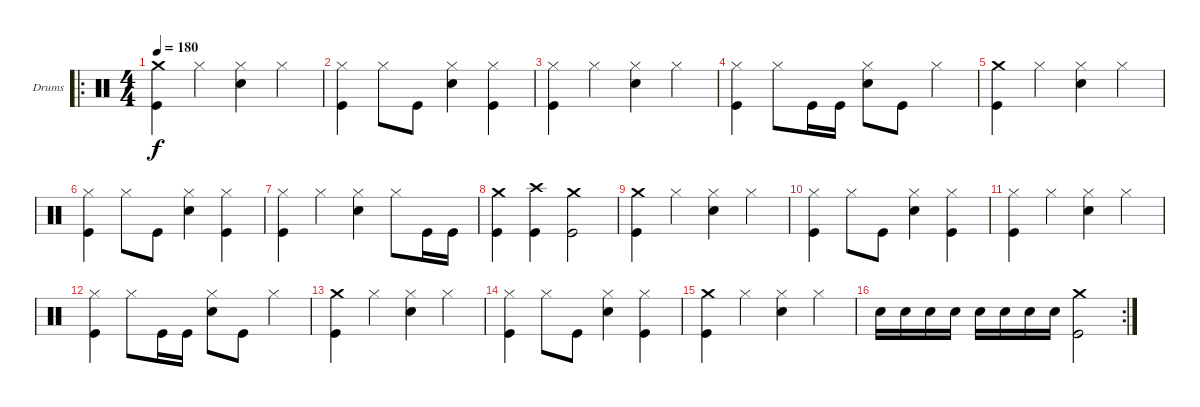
\bracketExtendMode groupsimilarinstruments
\firstSystemTrackNameOrientation horizontal
\otherSystemsTrackNameOrientation horizontal
\track ("Drumkit" "Drums") {instrument percussion}
\staff {score}
\articulation defaults
\ro
\ts (4 4)
\tempo 180
\clef neutral
\ks c
("Crash medium (hit)" "Kick (hit)").4{dy f} "Hi-Hat (closed)".4 ("Hi-Hat (closed)" "Snare (hit) 2").4 "Hi-Hat (closed)".4 |
("Hi-Hat (closed)" "Kick (hit)").4 "Hi-Hat (closed)".8 "Kick (hit)".8 ("Hi-Hat (closed)" "Snare (hit) 2").4 ("Hi-Hat (closed)" "Kick (hit)").4 |
("Hi-Hat (closed)" "Kick (hit)").4 "Hi-Hat (closed)".4 ("Hi-Hat (closed)" "Snare (hit) 2").4 "Hi-Hat (closed)".4 |
("Hi-Hat (closed)" "Kick (hit)").4 "Hi-Hat (closed)".8 "Kick (hit)".16 "Kick (hit)".16 ("Hi-Hat (closed)" "Snare (hit) 2").8 "Kick (hit)".8 "Hi-Hat (closed)".4 |
("Crash medium (hit)" "Kick (hit)").4 "Hi-Hat (closed)".4 ("Hi-Hat (closed)" "Snare (hit) 2").4 "Hi-Hat (closed)".4 |
("Hi-Hat (closed)" "Kick (hit)").4 "Hi-Hat (closed)".8 "Kick (hit)".8 ("Hi-Hat (closed)" "Snare (hit) 2").4 ("Hi-Hat (closed)" "Kick (hit)").4 |
("Hi-Hat (closed)" "Kick (hit)").4 "Hi-Hat (closed)".4 ("Hi-Hat (closed)" "Snare (hit) 2").4 "Hi-Hat (closed)".8 "Kick (hit)".16 "Kick (hit)".16 |
("Crash medium (hit)" "Kick (hit)").4 ("Crash high (hit)" "Kick (hit)").4 ("Crash medium (hit)" "Kick (hit)").2 |
("Crash medium (hit)" "Kick (hit)").4 "Hi-Hat (closed)".4 ("Hi-Hat (closed)" "Snare (hit) 2").4 "Hi-Hat (closed)".4 |
("Hi-Hat (closed)" "Kick (hit)").4 "Hi-Hat (closed)".8 "Kick (hit)".8 ("Hi-Hat (closed)" "Snare (hit) 2").4 ("Hi-Hat (closed)" "Kick (hit)").4 |
("Hi-Hat (closed)" "Kick (hit)").4 "Hi-Hat (closed)".4 ("Hi-Hat (closed)" "Snare (hit) 2").4 "Hi-Hat (closed)".4 |
("Hi-Hat (closed)" "Kick (hit)").4 "Hi-Hat (closed)".8 "Kick (hit)".16 "Kick (hit)".16 ("Hi-Hat (closed)" "Snare (hit) 2").8 "Kick (hit)".8 "Hi-Hat (closed)".4 |
("Crash medium (hit)" "Kick (hit)").4 "Hi-Hat (closed)".4 ("Hi-Hat (closed)" "Snare (hit) 2").4 "Hi-Hat (closed)".4 |
("Hi-Hat (closed)" "Kick (hit)").4 "Hi-Hat (closed)".8 "Kick (hit)".8 ("Hi-Hat (closed)" "Snare (hit) 2").4 ("Hi-Hat (closed)" "Kick (hit)").4 |
("Crash medium (hit)" "Kick (hit)").4 "Hi-Hat (closed)".4 ("Hi-Hat (closed)" "Snare (hit) 2").4 "Hi-Hat (closed)".4 |
\rc 2 "Snare (hit) 2".16 "Snare (hit) 2".16 "Snare (hit) 2".16 "Snare (hit) 2".16 "Snare (hit) 2".16 "Snare (hit) 2".16 "Snare (hit) 2".16 "Snare (hit) 2".16
("Crash medium (hit)" "Kick (hit)").2
